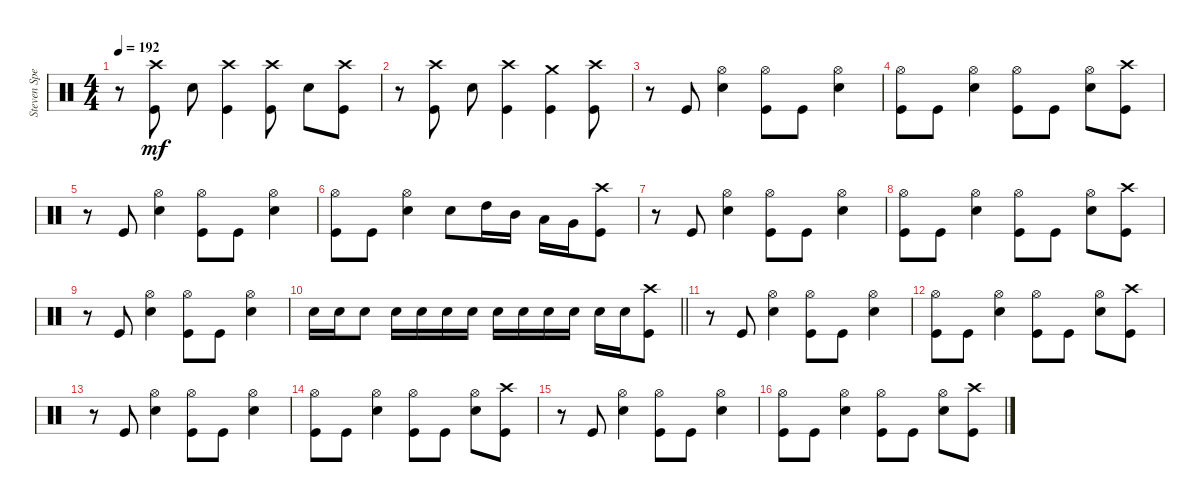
\track ("Steven Spence" "Steven Spe") {instrument percussion}
\staff {score}
\articulation defaults
\ts (4 4)
\section ("" "")
\tempo 192
\clef neutral
\ks c
r.8{dy mf} ("Crash high (hit)" "Kick (hit)").8 "Electric Snare (hit)".8 ("Crash high (hit)" "Kick (hit)").4 ("Crash high (hit)" "Kick (hit)").8 "Electric Snare (hit)".8 ("Crash high (hit)" "Kick (hit)").8 |
r.8 ("Crash high (hit)" "Kick (hit)").8 "Electric Snare (hit)".8 ("Crash high (hit)" "Kick (hit)").4 ("Crash medium (hit)" "Kick (hit)").4 ("Crash high (hit)" "Kick (hit)").8 |
r.8 "Kick (hit)".8 ("Hi-Hat (open)" "Electric Snare (hit)").4 ("Hi-Hat (open)" "Kick (hit)").8 "Kick (hit)".8 ("Hi-Hat (open)" "Electric Snare (hit)").4 |
("Hi-Hat (open)" "Kick (hit)").8 "Kick (hit)".8 ("Hi-Hat (open)" "Electric Snare (hit)").4 ("Hi-Hat (open)" "Kick (hit)").8 "Kick (hit)".8 ("Hi-Hat (open)" "Electric Snare (hit)").8 ("Crash high (hit)" "Kick (hit)").8 |
r.8 "Kick (hit)".8 ("Hi-Hat (open)" "Electric Snare (hit)").4 ("Hi-Hat (open)" "Kick (hit)").8 "Kick (hit)".8 ("Hi-Hat (open)" "Electric Snare (hit)").4 |
("Hi-Hat (open)" "Kick (hit)").8 "Kick (hit)".8 ("Hi-Hat (open)" "Electric Snare (hit)").4 "Electric Snare (hit)".8 "High Tom (hit)".16 "Mid Tom (hit)".16 "Low Tom (hit)".16 "Very Low Tom (hit)".16 ("Crash high (hit)" "Kick (hit)").8 |
r.8 "Kick (hit)".8 ("Hi-Hat (open)" "Electric Snare (hit)").4 ("Hi-Hat (open)" "Kick (hit)").8 "Kick (hit)".8 ("Hi-Hat (open)" "Electric Snare (hit)").4 |
("Hi-Hat (open)" "Kick (hit)").8 "Kick (hit)".8 ("Hi-Hat (open)" "Electric Snare (hit)").4 ("Hi-Hat (open)" "Kick (hit)").8 "Kick (hit)".8 ("Hi-Hat (open)" "Electric Snare (hit)").8 ("Crash high (hit)" "Kick (hit)").8 |
r.8 "Kick (hit)".8 ("Hi-Hat (open)" "Electric Snare (hit)").4 ("Hi-Hat (open)" "Kick (hit)").8 "Kick (hit)".8 ("Hi-Hat (open)" "Electric Snare (hit)").4 |
\barLineRight lightlight "Electric Snare (hit)".16 "Electric Snare (hit)".16 "Electric Snare (hit)".8 "Electric Snare (hit)".16 "Electric Snare (hit)".16 "Electric Snare (hit)".16 "Electric Snare (hit)".16 "Electric Snare (hit)".16 "Electric Snare (hit)".16 "Electric Snare (hit)".16 "Electric Snare (hit)".16 "Electric Snare (hit)".16 "Electric Snare (hit)".16
("Crash high (hit)" "Kick (hit)").8 |
\section ("" "")
r.8 "Kick (hit)".8 ("Hi-Hat (open)" "Electric Snare (hit)").4 ("Hi-Hat (open)" "Kick (hit)").8 "Kick (hit)".8 ("Hi-Hat (open)" "Electric Snare (hit)").4 |
("Hi-Hat (open)" "Kick (hit)").8 "Kick (hit)".8 ("Hi-Hat (open)" "Electric Snare (hit)").4 ("Hi-Hat (open)" "Kick (hit)").8 "Kick (hit)".8 ("Hi-Hat (open)" "Electric Snare (hit)").8 ("Crash high (hit)" "Kick (hit)").8 |
r.8 "Kick (hit)".8 ("Hi-Hat (open)" "Electric Snare (hit)").4 ("Hi-Hat (open)" "Kick (hit)").8 "Kick (hit)".8 ("Hi-Hat (open)" "Electric Snare (hit)").4 |
("Hi-Hat (open)" "Kick (hit)").8 "Kick (hit)".8 ("Hi-Hat (open)" "Electric Snare (hit)").4 ("Hi-Hat (open)" "Kick (hit)").8 "Kick (hit)".8 ("Hi-Hat (open)" "Electric Snare (hit)").8 ("Crash high (hit)" "Kick (hit)").8 |
r.8 "Kick (hit)".8 ("Hi-Hat (open)" "Electric Snare (hit)").4 ("Hi-Hat (open)" "Kick (hit)").8 "Kick (hit)".8 ("Hi-Hat (open)" "Electric Snare (hit)").4 |
("Hi-Hat (open)" "Kick (hit)").8 "Kick (hit)".8 ("Hi-Hat (open)" "Electric Snare (hit)").4 ("Hi-Hat (open)" "Kick (hit)").8 "Kick (hit)".8 ("Hi-Hat (open)" "Electric Snare (hit)").8 ("Crash high (hit)" "Kick (hit)").8
